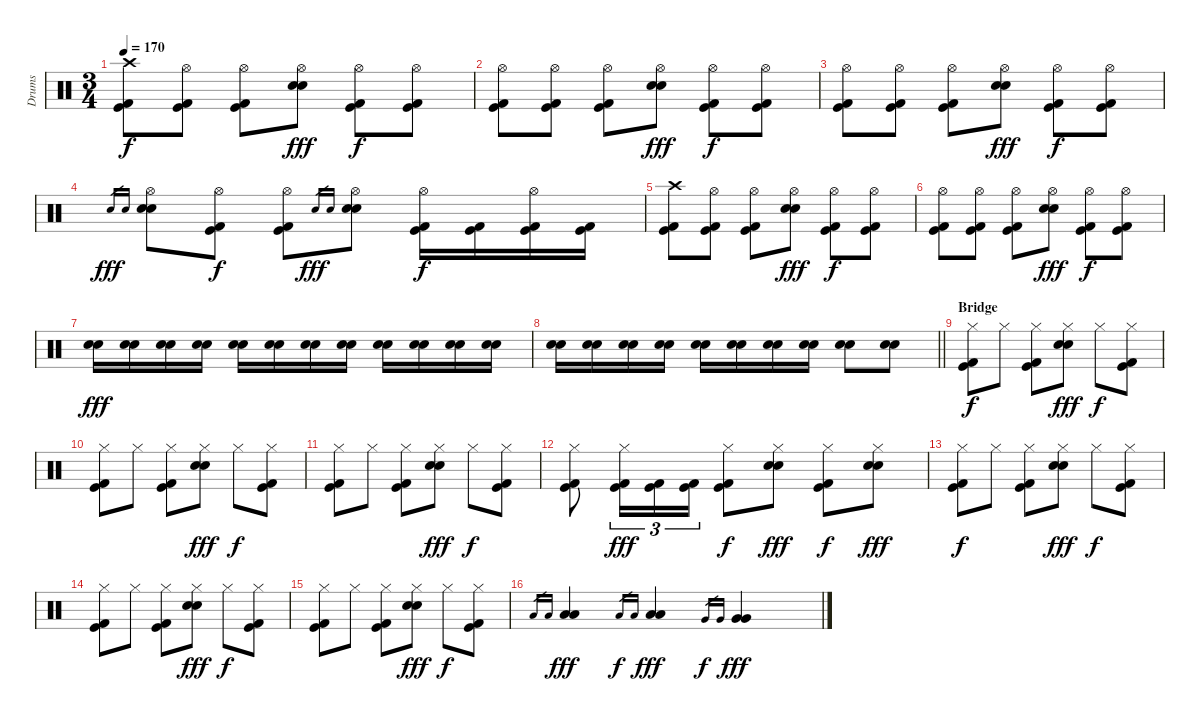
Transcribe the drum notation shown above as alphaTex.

\track ("Drums" "Drums") {instrument percussion}
\staff {score}
\articulation defaults
\ts (3 4)
\tempo 170
\clef neutral
\ks c
("Crash high (hit)" "Kick (hit)" "Kick (hit) 2").8{dy f} ("Hi-Hat (open)" "Kick (hit)" "Kick (hit) 2").8 ("Hi-Hat (open)" "Kick (hit)" "Kick (hit) 2").8 ("Hi-Hat (open)" "Electric Snare (hit)" "Electric Snare (hit)").8{dy fff} ("Hi-Hat (open)" "Kick (hit)" "Kick (hit) 2").8{dy f} ("Hi-Hat (open)" "Kick (hit)" "Kick (hit) 2").8 |
("Hi-Hat (open)" "Kick (hit)" "Kick (hit) 2").8 ("Hi-Hat (open)" "Kick (hit)" "Kick (hit) 2").8 ("Hi-Hat (open)" "Kick (hit)" "Kick (hit) 2").8 ("Hi-Hat (open)" "Electric Snare (hit)" "Electric Snare (hit)").8{dy fff} ("Hi-Hat (open)" "Kick (hit)" "Kick (hit) 2").8{dy f} ("Hi-Hat (open)" "Kick (hit)" "Kick (hit) 2").8 |
("Hi-Hat (open)" "Kick (hit)" "Kick (hit) 2").8 ("Hi-Hat (open)" "Kick (hit)" "Kick (hit) 2").8 ("Hi-Hat (open)" "Kick (hit)" "Kick (hit) 2").8 ("Hi-Hat (open)" "Electric Snare (hit)" "Electric Snare (hit)").8{dy fff} ("Hi-Hat (open)" "Kick (hit)" "Kick (hit) 2").8{dy f} ("Hi-Hat (open)" "Kick (hit)" "Kick (hit) 2").8 |
"Electric Snare (hit)".16{gr dy fff} "Electric Snare (hit)".16{gr} ("Hi-Hat (open)" "Electric Snare (hit)" "Electric Snare (hit)").8 ("Hi-Hat (open)" "Kick (hit)" "Kick (hit) 2").8{dy f} ("Hi-Hat (open)" "Kick (hit)" "Kick (hit) 2").8 "Electric Snare (hit)".16{gr dy fff} "Electric Snare (hit)".16{gr} ("Hi-Hat (open)" "Electric Snare (hit)" "Electric Snare (hit)").8 ("Hi-Hat (open)" "Kick (hit)" "Kick (hit) 2").16{dy f} ("Kick (hit)" "Kick (hit) 2").16 ("Hi-Hat (open)" "Kick (hit)" "Kick (hit) 2").16 ("Kick (hit)" "Kick (hit) 2").16 |
("Crash high (hit)" "Kick (hit)" "Kick (hit) 2").8 ("Hi-Hat (open)" "Kick (hit)" "Kick (hit) 2").8 ("Hi-Hat (open)" "Kick (hit)" "Kick (hit) 2").8 ("Hi-Hat (open)" "Electric Snare (hit)" "Electric Snare (hit)").8{dy fff} ("Hi-Hat (open)" "Kick (hit)" "Kick (hit) 2").8{dy f} ("Hi-Hat (open)" "Kick (hit)" "Kick (hit) 2").8 |
("Hi-Hat (open)" "Kick (hit)" "Kick (hit) 2").8 ("Hi-Hat (open)" "Kick (hit)" "Kick (hit) 2").8 ("Hi-Hat (open)" "Kick (hit)" "Kick (hit) 2").8 ("Hi-Hat (open)" "Electric Snare (hit)" "Electric Snare (hit)").8{dy fff} ("Hi-Hat (open)" "Kick (hit)" "Kick (hit) 2").8{dy f} ("Hi-Hat (open)" "Kick (hit)" "Kick (hit) 2").8 |
("Electric Snare (hit)" "Electric Snare (hit)").16{dy fff} ("Electric Snare (hit)" "Electric Snare (hit)").16 ("Electric Snare (hit)" "Electric Snare (hit)").16 ("Electric Snare (hit)" "Electric Snare (hit)").16 ("Electric Snare (hit)" "Electric Snare (hit)").16 ("Electric Snare (hit)" "Electric Snare (hit)").16 ("Electric Snare (hit)" "Electric Snare (hit)").16 ("Electric Snare (hit)" "Electric Snare (hit)").16 ("Electric Snare (hit)" "Electric Snare (hit)").16 ("Electric Snare (hit)" "Electric Snare (hit)").16 ("Electric Snare (hit)" "Electric Snare (hit)").16 ("Electric Snare (hit)" "Electric Snare (hit)").16 |
\barLineRight lightlight
("Electric Snare (hit)" "Electric Snare (hit)").16 ("Electric Snare (hit)" "Electric Snare (hit)").16 ("Electric Snare (hit)" "Electric Snare (hit)").16 ("Electric Snare (hit)" "Electric Snare (hit)").16 ("Electric Snare (hit)" "Electric Snare (hit)").16 ("Electric Snare (hit)" "Electric Snare (hit)").16 ("Electric Snare (hit)" "Electric Snare (hit)").16 ("Electric Snare (hit)" "Electric Snare (hit)").16 ("Electric Snare (hit)" "Electric Snare (hit)").8 ("Electric Snare (hit)" "Electric Snare (hit)").8 |
\section ("" "Bridge")
("Hi-Hat (closed)" "Kick (hit)" "Kick (hit) 2").8{dy f} "Hi-Hat (closed)".8 ("Hi-Hat (closed)" "Kick (hit)" "Kick (hit) 2").8 ("Hi-Hat (closed)" "Electric Snare (hit)" "Electric Snare (hit)").8{dy fff} "Hi-Hat (closed)".8{dy f} ("Hi-Hat (closed)" "Kick (hit)" "Kick (hit) 2").8 |
("Hi-Hat (closed)" "Kick (hit)" "Kick (hit) 2").8 "Hi-Hat (closed)".8 ("Hi-Hat (closed)" "Kick (hit)" "Kick (hit) 2").8 ("Hi-Hat (closed)" "Electric Snare (hit)" "Electric Snare (hit)").8{dy fff} "Hi-Hat (closed)".8{dy f} ("Hi-Hat (closed)" "Kick (hit)" "Kick (hit) 2").8 |
("Hi-Hat (closed)" "Kick (hit)" "Kick (hit) 2").8 "Hi-Hat (closed)".8 ("Hi-Hat (closed)" "Kick (hit)" "Kick (hit) 2").8 ("Hi-Hat (closed)" "Electric Snare (hit)" "Electric Snare (hit)").8{dy fff} "Hi-Hat (closed)".8{dy f} ("Hi-Hat (closed)" "Kick (hit)" "Kick (hit) 2").8 |
("Hi-Hat (closed)" "Kick (hit)" "Kick (hit) 2").8 ("Hi-Hat (closed)" "Kick (hit)" "Kick (hit) 2").16{tu (3 2) dy fff} ("Kick (hit)" "Kick (hit) 2").16{tu (3 2)} ("Kick (hit)" "Kick (hit) 2").16{tu (3 2)} ("Hi-Hat (closed)" "Kick (hit)" "Kick (hit) 2").8{dy f} ("Hi-Hat (closed)" "Electric Snare (hit)" "Electric Snare (hit)").8{dy fff} ("Hi-Hat (closed)" "Kick (hit)" "Kick (hit) 2").8{dy f} ("Hi-Hat (closed)" "Electric Snare (hit)" "Electric Snare (hit)").8{dy fff} |
("Hi-Hat (closed)" "Kick (hit)" "Kick (hit) 2").8{dy f} "Hi-Hat (closed)".8 ("Hi-Hat (closed)" "Kick (hit)" "Kick (hit) 2").8 ("Hi-Hat (closed)" "Electric Snare (hit)" "Electric Snare (hit)").8{dy fff} "Hi-Hat (closed)".8{dy f} ("Hi-Hat (closed)" "Kick (hit)" "Kick (hit) 2").8 |
("Hi-Hat (closed)" "Kick (hit)" "Kick (hit) 2").8 "Hi-Hat (closed)".8 ("Hi-Hat (closed)" "Kick (hit)" "Kick (hit) 2").8 ("Hi-Hat (closed)" "Electric Snare (hit)" "Electric Snare (hit)").8{dy fff} "Hi-Hat (closed)".8{dy f} ("Hi-Hat (closed)" "Kick (hit)" "Kick (hit) 2").8 |
("Hi-Hat (closed)" "Kick (hit)" "Kick (hit) 2").8 "Hi-Hat (closed)".8 ("Hi-Hat (closed)" "Kick (hit)" "Kick (hit) 2").8 ("Hi-Hat (closed)" "Electric Snare (hit)" "Electric Snare (hit)").8{dy fff} "Hi-Hat (closed)".8{dy f} ("Hi-Hat (closed)" "Kick (hit)" "Kick (hit) 2").8 |
"Low Tom (hit)".16{gr} "Low Tom (hit)".16{gr} ("Low Tom (hit)" "Low Tom (hit)").4{dy fff} "Low Floor Tom (hit)".16{gr dy f} "Low Floor Tom (hit)".16{gr} ("Low Floor Tom (hit)" "Low Floor Tom (hit)").4{dy fff} "Very Low Tom (hit)".16{gr dy f} "Very Low Tom (hit)".16{gr} ("Very Low Tom (hit)" "Very Low Tom (hit)").4{dy fff}
